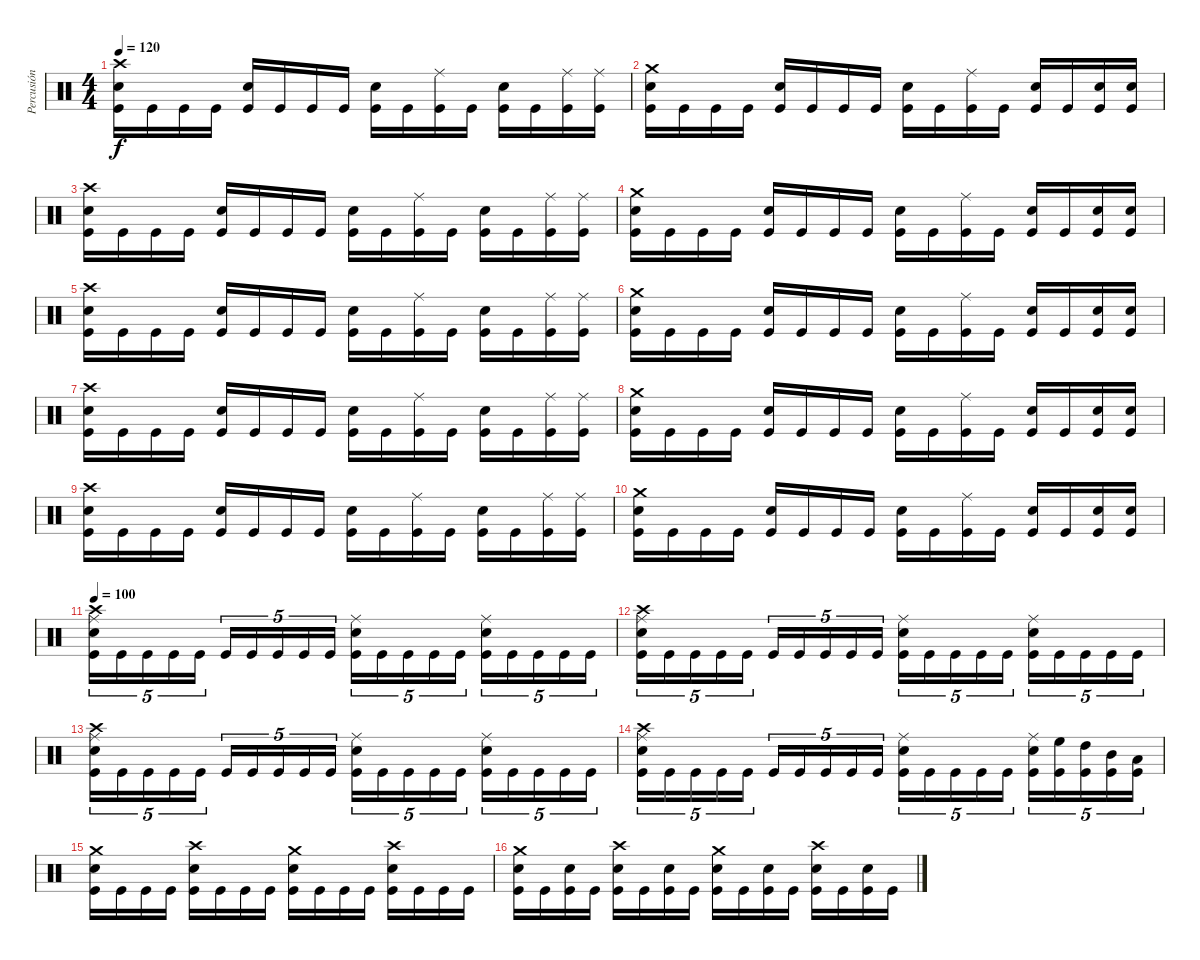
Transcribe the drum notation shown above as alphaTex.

\track ("Percusión" "Percusión") {instrument percussion}
\staff {score}
\articulation defaults
\ts (4 4)
\tempo 120
\clef neutral
\ks c
("Crash high (hit)" "Electric Snare (hit)" "Kick (hit)").16{dy f} "Kick (hit)".16 "Kick (hit)".16 "Kick (hit)".16 ("Electric Snare (hit)" "Kick (hit)").16 "Kick (hit)".16 "Kick (hit)".16 "Kick (hit)".16 ("Electric Snare (hit)" "Kick (hit)").16 "Kick (hit)".16 ("Ride (middle)" "Kick (hit)").16 "Kick (hit)".16 ("Electric Snare (hit)" "Kick (hit)").16 "Kick (hit)".16 ("Ride (middle)" "Kick (hit)").16 ("Ride (middle)" "Kick (hit)").16 |
("Crash medium (hit)" "Electric Snare (hit)" "Kick (hit)").16 "Kick (hit)".16 "Kick (hit)".16 "Kick (hit)".16 ("Electric Snare (hit)" "Kick (hit)").16 "Kick (hit)".16 "Kick (hit)".16 "Kick (hit)".16 ("Electric Snare (hit)" "Kick (hit)").16 "Kick (hit)".16 ("Ride (middle)" "Kick (hit)").16 "Kick (hit)".16 ("Electric Snare (hit)" "Kick (hit)").16 "Kick (hit)".16 ("Electric Snare (hit)" "Kick (hit)").16 ("Electric Snare (hit)" "Kick (hit)").16 |
("Crash high (hit)" "Electric Snare (hit)" "Kick (hit)").16 "Kick (hit)".16 "Kick (hit)".16 "Kick (hit)".16 ("Electric Snare (hit)" "Kick (hit)").16 "Kick (hit)".16 "Kick (hit)".16 "Kick (hit)".16 ("Electric Snare (hit)" "Kick (hit)").16 "Kick (hit)".16 ("Ride (middle)" "Kick (hit)").16 "Kick (hit)".16 ("Electric Snare (hit)" "Kick (hit)").16 "Kick (hit)".16 ("Ride (middle)" "Kick (hit)").16 ("Ride (middle)" "Kick (hit)").16 |
("Crash medium (hit)" "Electric Snare (hit)" "Kick (hit)").16 "Kick (hit)".16 "Kick (hit)".16 "Kick (hit)".16 ("Electric Snare (hit)" "Kick (hit)").16 "Kick (hit)".16 "Kick (hit)".16 "Kick (hit)".16 ("Electric Snare (hit)" "Kick (hit)").16 "Kick (hit)".16 ("Ride (middle)" "Kick (hit)").16 "Kick (hit)".16 ("Electric Snare (hit)" "Kick (hit)").16 "Kick (hit)".16 ("Electric Snare (hit)" "Kick (hit)").16 ("Electric Snare (hit)" "Kick (hit)").16 |
("Crash high (hit)" "Electric Snare (hit)" "Kick (hit)").16 "Kick (hit)".16 "Kick (hit)".16 "Kick (hit)".16 ("Electric Snare (hit)" "Kick (hit)").16 "Kick (hit)".16 "Kick (hit)".16 "Kick (hit)".16 ("Electric Snare (hit)" "Kick (hit)").16 "Kick (hit)".16 ("Ride (middle)" "Kick (hit)").16 "Kick (hit)".16 ("Electric Snare (hit)" "Kick (hit)").16 "Kick (hit)".16 ("Ride (middle)" "Kick (hit)").16 ("Ride (middle)" "Kick (hit)").16 |
("Crash medium (hit)" "Electric Snare (hit)" "Kick (hit)").16 "Kick (hit)".16 "Kick (hit)".16 "Kick (hit)".16 ("Electric Snare (hit)" "Kick (hit)").16 "Kick (hit)".16 "Kick (hit)".16 "Kick (hit)".16 ("Electric Snare (hit)" "Kick (hit)").16 "Kick (hit)".16 ("Ride (middle)" "Kick (hit)").16 "Kick (hit)".16 ("Electric Snare (hit)" "Kick (hit)").16 "Kick (hit)".16 ("Electric Snare (hit)" "Kick (hit)").16 ("Electric Snare (hit)" "Kick (hit)").16 |
("Crash high (hit)" "Electric Snare (hit)" "Kick (hit)").16 "Kick (hit)".16 "Kick (hit)".16 "Kick (hit)".16 ("Electric Snare (hit)" "Kick (hit)").16 "Kick (hit)".16 "Kick (hit)".16 "Kick (hit)".16 ("Electric Snare (hit)" "Kick (hit)").16 "Kick (hit)".16 ("Ride (middle)" "Kick (hit)").16 "Kick (hit)".16 ("Electric Snare (hit)" "Kick (hit)").16 "Kick (hit)".16 ("Ride (middle)" "Kick (hit)").16 ("Ride (middle)" "Kick (hit)").16 |
("Crash medium (hit)" "Electric Snare (hit)" "Kick (hit)").16 "Kick (hit)".16 "Kick (hit)".16 "Kick (hit)".16 ("Electric Snare (hit)" "Kick (hit)").16 "Kick (hit)".16 "Kick (hit)".16 "Kick (hit)".16 ("Electric Snare (hit)" "Kick (hit)").16 "Kick (hit)".16 ("Ride (middle)" "Kick (hit)").16 "Kick (hit)".16 ("Electric Snare (hit)" "Kick (hit)").16 "Kick (hit)".16 ("Electric Snare (hit)" "Kick (hit)").16 ("Electric Snare (hit)" "Kick (hit)").16 |
("Crash high (hit)" "Electric Snare (hit)" "Kick (hit)").16 "Kick (hit)".16 "Kick (hit)".16 "Kick (hit)".16 ("Electric Snare (hit)" "Kick (hit)").16 "Kick (hit)".16 "Kick (hit)".16 "Kick (hit)".16 ("Electric Snare (hit)" "Kick (hit)").16 "Kick (hit)".16 ("Ride (middle)" "Kick (hit)").16 "Kick (hit)".16 ("Electric Snare (hit)" "Kick (hit)").16 "Kick (hit)".16 ("Ride (middle)" "Kick (hit)").16 ("Ride (middle)" "Kick (hit)").16 |
("Crash medium (hit)" "Electric Snare (hit)" "Kick (hit)").16 "Kick (hit)".16 "Kick (hit)".16 "Kick (hit)".16 ("Electric Snare (hit)" "Kick (hit)").16 "Kick (hit)".16 "Kick (hit)".16 "Kick (hit)".16 ("Electric Snare (hit)" "Kick (hit)").16 "Kick (hit)".16 ("Ride (middle)" "Kick (hit)").16 "Kick (hit)".16 ("Electric Snare (hit)" "Kick (hit)").16 "Kick (hit)".16 ("Electric Snare (hit)" "Kick (hit)").16 ("Electric Snare (hit)" "Kick (hit)").16 |
\tempo 100
("Crash high (hit)" "Ride (middle)" "Electric Snare (hit)" "Kick (hit)").16{tu (5 4)} "Kick (hit)".16{tu (5 4)} "Kick (hit)".16{tu (5 4)} "Kick (hit)".16{tu (5 4)} "Kick (hit)".16{tu (5 4)} "Kick (hit)".16{tu (5 4)} "Kick (hit)".16{tu (5 4)} "Kick (hit)".16{tu (5 4)} "Kick (hit)".16{tu (5 4)} "Kick (hit)".16{tu (5 4)} ("Ride (middle)" "Electric Snare (hit)" "Kick (hit)").16{tu (5 4)} "Kick (hit)".16{tu (5 4)} "Kick (hit)".16{tu (5 4)} "Kick (hit)".16{tu (5 4)} "Kick (hit)".16{tu (5 4)} ("Ride (middle)" "Electric Snare (hit)" "Kick (hit)").16{tu (5 4)} "Kick (hit)".16{tu (5 4)} "Kick (hit)".16{tu (5 4)} "Kick (hit)".16{tu (5 4)} "Kick (hit)".16{tu (5 4)} |
("Crash high (hit)" "Ride (middle)" "Electric Snare (hit)" "Kick (hit)").16{tu (5 4)} "Kick (hit)".16{tu (5 4)} "Kick (hit)".16{tu (5 4)} "Kick (hit)".16{tu (5 4)} "Kick (hit)".16{tu (5 4)} "Kick (hit)".16{tu (5 4)} "Kick (hit)".16{tu (5 4)} "Kick (hit)".16{tu (5 4)} "Kick (hit)".16{tu (5 4)} "Kick (hit)".16{tu (5 4)} ("Ride (middle)" "Electric Snare (hit)" "Kick (hit)").16{tu (5 4)} "Kick (hit)".16{tu (5 4)} "Kick (hit)".16{tu (5 4)} "Kick (hit)".16{tu (5 4)} "Kick (hit)".16{tu (5 4)} ("Ride (middle)" "Electric Snare (hit)" "Kick (hit)").16{tu (5 4)} "Kick (hit)".16{tu (5 4)} "Kick (hit)".16{tu (5 4)} "Kick (hit)".16{tu (5 4)} "Kick (hit)".16{tu (5 4)} |
("Crash high (hit)" "Ride (middle)" "Electric Snare (hit)" "Kick (hit)").16{tu (5 4)} "Kick (hit)".16{tu (5 4)} "Kick (hit)".16{tu (5 4)} "Kick (hit)".16{tu (5 4)} "Kick (hit)".16{tu (5 4)} "Kick (hit)".16{tu (5 4)} "Kick (hit)".16{tu (5 4)} "Kick (hit)".16{tu (5 4)} "Kick (hit)".16{tu (5 4)} "Kick (hit)".16{tu (5 4)} ("Ride (middle)" "Electric Snare (hit)" "Kick (hit)").16{tu (5 4)} "Kick (hit)".16{tu (5 4)} "Kick (hit)".16{tu (5 4)} "Kick (hit)".16{tu (5 4)} "Kick (hit)".16{tu (5 4)} ("Ride (middle)" "Electric Snare (hit)" "Kick (hit)").16{tu (5 4)} "Kick (hit)".16{tu (5 4)} "Kick (hit)".16{tu (5 4)} "Kick (hit)".16{tu (5 4)} "Kick (hit)".16{tu (5 4)} |
("Crash high (hit)" "Ride (middle)" "Electric Snare (hit)" "Kick (hit)").16{tu (5 4)} "Kick (hit)".16{tu (5 4)} "Kick (hit)".16{tu (5 4)} "Kick (hit)".16{tu (5 4)} "Kick (hit)".16{tu (5 4)} "Kick (hit)".16{tu (5 4)} "Kick (hit)".16{tu (5 4)} "Kick (hit)".16{tu (5 4)} "Kick (hit)".16{tu (5 4)} "Kick (hit)".16{tu (5 4)} ("Ride (middle)" "Electric Snare (hit)" "Kick (hit)").16{tu (5 4)} "Kick (hit)".16{tu (5 4)} "Kick (hit)".16{tu (5 4)} "Kick (hit)".16{tu (5 4)} "Kick (hit)".16{tu (5 4)} ("Ride (middle)" "Electric Snare (hit)" "Kick (hit)").16{tu (5 4)} ("High Floor Tom (hit)" "Kick (hit)").16{tu (5 4)} ("High Tom (hit)" "Kick (hit)").16{tu (5 4)} ("Mid Tom (hit)" "Kick (hit)").16{tu (5 4)} ("Low Tom (hit)" "Kick (hit)").16{tu (5 4)} |
("Crash medium (hit)" "Electric Snare (hit)" "Kick (hit)").16 "Kick (hit)".16 "Kick (hit)".16 "Kick (hit)".16 ("Crash high (hit)" "Electric Snare (hit)" "Kick (hit)").16 "Kick (hit)".16 "Kick (hit)".16 "Kick (hit)".16 ("Crash medium (hit)" "Electric Snare (hit)" "Kick (hit)").16 "Kick (hit)".16 "Kick (hit)".16 "Kick (hit)".16 ("Crash high (hit)" "Electric Snare (hit)" "Kick (hit)").16 "Kick (hit)".16 "Kick (hit)".16 "Kick (hit)".16 |
("Crash medium (hit)" "Electric Snare (hit)" "Kick (hit)").16 "Kick (hit)".16 ("Electric Snare (hit)" "Kick (hit)").16 "Kick (hit)".16 ("Crash high (hit)" "Electric Snare (hit)" "Kick (hit)").16 "Kick (hit)".16 ("Electric Snare (hit)" "Kick (hit)").16 "Kick (hit)".16 ("Crash medium (hit)" "Electric Snare (hit)" "Kick (hit)").16 "Kick (hit)".16 ("Electric Snare (hit)" "Kick (hit)").16 "Kick (hit)".16 ("Crash high (hit)" "Electric Snare (hit)" "Kick (hit)").16 "Kick (hit)".16 ("Electric Snare (hit)" "Kick (hit)").16 "Kick (hit)".16
